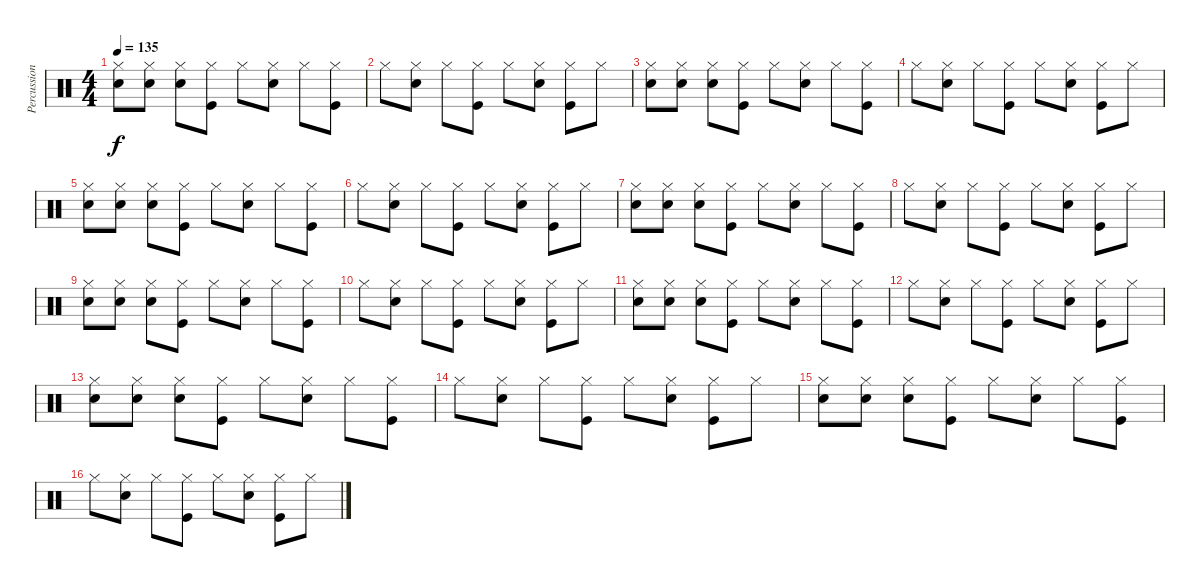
\track ("Percussion" "Percussion") {instrument percussion}
\staff {score}
\articulation defaults
\ts (4 4)
\tempo 135
\clef neutral
\ks c
("Hi-Hat (closed)" "Snare (hit) 2").8{dy f} ("Hi-Hat (closed)" "Snare (hit) 2").8 ("Hi-Hat (closed)" "Snare (hit) 2").8 ("Hi-Hat (closed)" "Kick (hit)").8 "Hi-Hat (closed)".8 ("Hi-Hat (closed)" "Snare (hit) 2").8 "Hi-Hat (closed)".8 ("Hi-Hat (closed)" "Kick (hit)").8 |
"Hi-Hat (closed)".8 ("Hi-Hat (closed)" "Snare (hit) 2").8 "Hi-Hat (closed)".8 ("Hi-Hat (closed)" "Kick (hit)").8 "Hi-Hat (closed)".8 ("Hi-Hat (closed)" "Snare (hit) 2").8 ("Hi-Hat (closed)" "Kick (hit)").8 "Hi-Hat (closed)".8 |
("Hi-Hat (closed)" "Snare (hit) 2").8 ("Hi-Hat (closed)" "Snare (hit) 2").8 ("Hi-Hat (closed)" "Snare (hit) 2").8 ("Hi-Hat (closed)" "Kick (hit)").8 "Hi-Hat (closed)".8 ("Hi-Hat (closed)" "Snare (hit) 2").8 "Hi-Hat (closed)".8 ("Hi-Hat (closed)" "Kick (hit)").8 |
"Hi-Hat (closed)".8 ("Hi-Hat (closed)" "Snare (hit) 2").8 "Hi-Hat (closed)".8 ("Hi-Hat (closed)" "Kick (hit)").8 "Hi-Hat (closed)".8 ("Hi-Hat (closed)" "Snare (hit) 2").8 ("Hi-Hat (closed)" "Kick (hit)").8 "Hi-Hat (closed)".8 |
("Hi-Hat (closed)" "Snare (hit) 2").8 ("Hi-Hat (closed)" "Snare (hit) 2").8 ("Hi-Hat (closed)" "Snare (hit) 2").8 ("Hi-Hat (closed)" "Kick (hit)").8 "Hi-Hat (closed)".8 ("Hi-Hat (closed)" "Snare (hit) 2").8 "Hi-Hat (closed)".8 ("Hi-Hat (closed)" "Kick (hit)").8 |
"Hi-Hat (closed)".8 ("Hi-Hat (closed)" "Snare (hit) 2").8 "Hi-Hat (closed)".8 ("Hi-Hat (closed)" "Kick (hit)").8 "Hi-Hat (closed)".8 ("Hi-Hat (closed)" "Snare (hit) 2").8 ("Hi-Hat (closed)" "Kick (hit)").8 "Hi-Hat (closed)".8 |
("Hi-Hat (closed)" "Snare (hit) 2").8 ("Hi-Hat (closed)" "Snare (hit) 2").8 ("Hi-Hat (closed)" "Snare (hit) 2").8 ("Hi-Hat (closed)" "Kick (hit)").8 "Hi-Hat (closed)".8 ("Hi-Hat (closed)" "Snare (hit) 2").8 "Hi-Hat (closed)".8 ("Hi-Hat (closed)" "Kick (hit)").8 |
"Hi-Hat (closed)".8 ("Hi-Hat (closed)" "Snare (hit) 2").8 "Hi-Hat (closed)".8 ("Hi-Hat (closed)" "Kick (hit)").8 "Hi-Hat (closed)".8 ("Hi-Hat (closed)" "Snare (hit) 2").8 ("Hi-Hat (closed)" "Kick (hit)").8 "Hi-Hat (closed)".8 |
("Hi-Hat (closed)" "Snare (hit) 2").8 ("Hi-Hat (closed)" "Snare (hit) 2").8 ("Hi-Hat (closed)" "Snare (hit) 2").8 ("Hi-Hat (closed)" "Kick (hit)").8 "Hi-Hat (closed)".8 ("Hi-Hat (closed)" "Snare (hit) 2").8 "Hi-Hat (closed)".8 ("Hi-Hat (closed)" "Kick (hit)").8 |
"Hi-Hat (closed)".8 ("Hi-Hat (closed)" "Snare (hit) 2").8 "Hi-Hat (closed)".8 ("Hi-Hat (closed)" "Kick (hit)").8 "Hi-Hat (closed)".8 ("Hi-Hat (closed)" "Snare (hit) 2").8 ("Hi-Hat (closed)" "Kick (hit)").8 "Hi-Hat (closed)".8 |
("Hi-Hat (closed)" "Snare (hit) 2").8 ("Hi-Hat (closed)" "Snare (hit) 2").8 ("Hi-Hat (closed)" "Snare (hit) 2").8 ("Hi-Hat (closed)" "Kick (hit)").8 "Hi-Hat (closed)".8 ("Hi-Hat (closed)" "Snare (hit) 2").8 "Hi-Hat (closed)".8 ("Hi-Hat (closed)" "Kick (hit)").8 |
"Hi-Hat (closed)".8 ("Hi-Hat (closed)" "Snare (hit) 2").8 "Hi-Hat (closed)".8 ("Hi-Hat (closed)" "Kick (hit)").8 "Hi-Hat (closed)".8 ("Hi-Hat (closed)" "Snare (hit) 2").8 ("Hi-Hat (closed)" "Kick (hit)").8 "Hi-Hat (closed)".8 |
("Hi-Hat (closed)" "Snare (hit) 2").8 ("Hi-Hat (closed)" "Snare (hit) 2").8 ("Hi-Hat (closed)" "Snare (hit) 2").8 ("Hi-Hat (closed)" "Kick (hit)").8 "Hi-Hat (closed)".8 ("Hi-Hat (closed)" "Snare (hit) 2").8 "Hi-Hat (closed)".8 ("Hi-Hat (closed)" "Kick (hit)").8 |
"Hi-Hat (closed)".8 ("Hi-Hat (closed)" "Snare (hit) 2").8 "Hi-Hat (closed)".8 ("Hi-Hat (closed)" "Kick (hit)").8 "Hi-Hat (closed)".8 ("Hi-Hat (closed)" "Snare (hit) 2").8 ("Hi-Hat (closed)" "Kick (hit)").8 "Hi-Hat (closed)".8 |
("Hi-Hat (closed)" "Snare (hit) 2").8 ("Hi-Hat (closed)" "Snare (hit) 2").8 ("Hi-Hat (closed)" "Snare (hit) 2").8 ("Hi-Hat (closed)" "Kick (hit)").8 "Hi-Hat (closed)".8 ("Hi-Hat (closed)" "Snare (hit) 2").8 "Hi-Hat (closed)".8 ("Hi-Hat (closed)" "Kick (hit)").8 |
"Hi-Hat (closed)".8 ("Hi-Hat (closed)" "Snare (hit) 2").8 "Hi-Hat (closed)".8 ("Hi-Hat (closed)" "Kick (hit)").8 "Hi-Hat (closed)".8 ("Hi-Hat (closed)" "Snare (hit) 2").8 ("Hi-Hat (closed)" "Kick (hit)").8 "Hi-Hat (closed)".8
